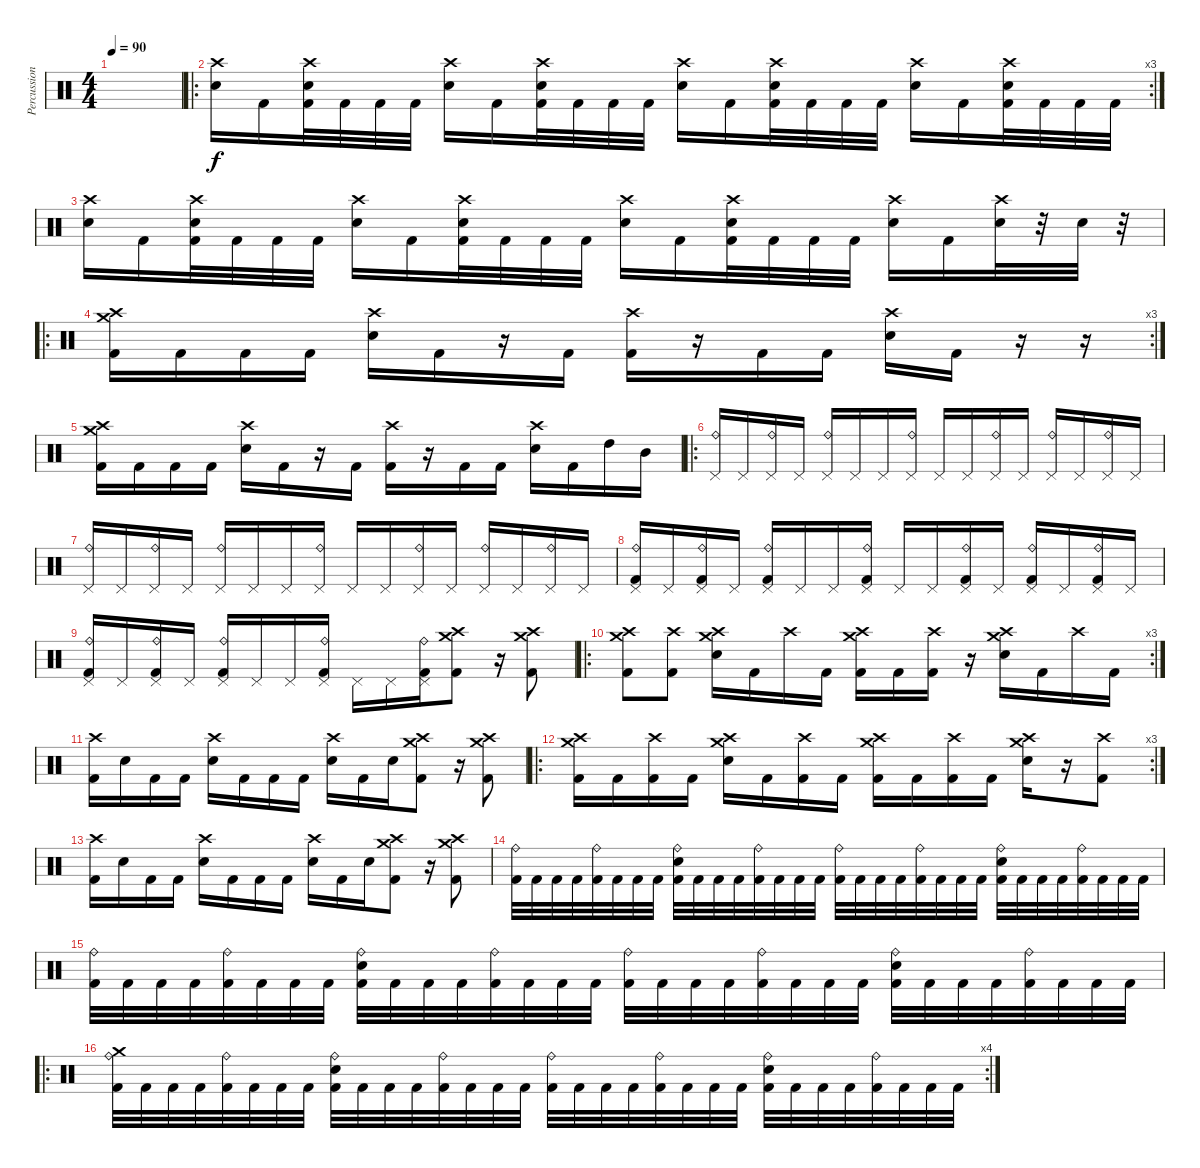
\track ("Percussion" "Percussion") {instrument percussion}
\staff {score}
\articulation defaults
\ts (4 4)
\tempo 90
\clef neutral
\ks c
|
\ro
\rc 3
("Crash high (hit)" "Electric Snare (hit)").16 "Kick (hit) 2".16 ("Crash high (hit)" "Electric Snare (hit)" "Kick (hit) 2").32 "Kick (hit) 2".32 "Kick (hit) 2".32 "Kick (hit) 2".32 ("Crash high (hit)" "Electric Snare (hit)").16 "Kick (hit) 2".16 ("Crash high (hit)" "Electric Snare (hit)" "Kick (hit) 2").32 "Kick (hit) 2".32 "Kick (hit) 2".32 "Kick (hit) 2".32 ("Crash high (hit)" "Electric Snare (hit)").16 "Kick (hit) 2".16 ("Crash high (hit)" "Electric Snare (hit)" "Kick (hit) 2").32 "Kick (hit) 2".32 "Kick (hit) 2".32 "Kick (hit) 2".32 ("Crash high (hit)" "Electric Snare (hit)").16 "Kick (hit) 2".16 ("Crash high (hit)" "Electric Snare (hit)" "Kick (hit) 2").32 "Kick (hit) 2".32 "Kick (hit) 2".32 "Kick (hit) 2".32 |
("Crash high (hit)" "Electric Snare (hit)").16 "Kick (hit) 2".16 ("Crash high (hit)" "Electric Snare (hit)" "Kick (hit) 2").32 "Kick (hit) 2".32 "Kick (hit) 2".32 "Kick (hit) 2".32 ("Crash high (hit)" "Electric Snare (hit)").16 "Kick (hit) 2".16 ("Crash high (hit)" "Electric Snare (hit)" "Kick (hit) 2").32 "Kick (hit) 2".32 "Kick (hit) 2".32 "Kick (hit) 2".32 ("Crash high (hit)" "Electric Snare (hit)").16 "Kick (hit) 2".16 ("Crash high (hit)" "Electric Snare (hit)" "Kick (hit) 2").32 "Kick (hit) 2".32 "Kick (hit) 2".32 "Kick (hit) 2".32 ("Crash high (hit)" "Electric Snare (hit)").16 "Kick (hit) 2".16 ("Crash high (hit)" "Electric Snare (hit)").32 r.32 "Electric Snare (hit)".32 r.32 |
\ro
\rc 3
("Crash medium (hit)" "Crash high (hit)" "Kick (hit) 2").16 "Kick (hit) 2".16 "Kick (hit) 2".16 "Kick (hit) 2".16 ("Crash high (hit)" "Electric Snare (hit)").16 "Kick (hit) 2".16 r.16 "Kick (hit) 2".16 ("Crash high (hit)" "Kick (hit) 2").16 r.16 "Kick (hit) 2".16 "Kick (hit) 2".16 ("Crash high (hit)" "Electric Snare (hit)").16 "Kick (hit) 2".16 r.16 r.16 |
("Crash medium (hit)" "Crash high (hit)" "Kick (hit) 2").16 "Kick (hit) 2".16 "Kick (hit) 2".16 "Kick (hit) 2".16 ("Crash high (hit)" "Electric Snare (hit)").16 "Kick (hit) 2".16 r.16 "Kick (hit) 2".16 ("Crash high (hit)" "Kick (hit) 2").16 r.16 "Kick (hit) 2".16 "Kick (hit) 2".16 ("Crash high (hit)" "Electric Snare (hit)").16 "Kick (hit) 2".16 "High Tom (hit)".16 "Mid Tom (hit)".16 |
\ro
("Ride (bell)" "Pedal Hi-Hat (hit)").16 "Pedal Hi-Hat (hit)".16 ("Ride (bell)" "Pedal Hi-Hat (hit)").16 "Pedal Hi-Hat (hit)".16 ("Ride (bell)" "Pedal Hi-Hat (hit)").16 "Pedal Hi-Hat (hit)".16 "Pedal Hi-Hat (hit)".16 ("Ride (bell)" "Pedal Hi-Hat (hit)").16 "Pedal Hi-Hat (hit)".16 "Pedal Hi-Hat (hit)".16 ("Ride (bell)" "Pedal Hi-Hat (hit)").16 "Pedal Hi-Hat (hit)".16 ("Ride (bell)" "Pedal Hi-Hat (hit)").16 "Pedal Hi-Hat (hit)".16 ("Ride (bell)" "Pedal Hi-Hat (hit)").16 "Pedal Hi-Hat (hit)".16 |
("Ride (bell)" "Pedal Hi-Hat (hit)").16 "Pedal Hi-Hat (hit)".16 ("Ride (bell)" "Pedal Hi-Hat (hit)").16 "Pedal Hi-Hat (hit)".16 ("Ride (bell)" "Pedal Hi-Hat (hit)").16 "Pedal Hi-Hat (hit)".16 "Pedal Hi-Hat (hit)".16 ("Ride (bell)" "Pedal Hi-Hat (hit)").16 "Pedal Hi-Hat (hit)".16 "Pedal Hi-Hat (hit)".16 ("Ride (bell)" "Pedal Hi-Hat (hit)").16 "Pedal Hi-Hat (hit)".16 ("Ride (bell)" "Pedal Hi-Hat (hit)").16 "Pedal Hi-Hat (hit)".16 ("Ride (bell)" "Pedal Hi-Hat (hit)").16 "Pedal Hi-Hat (hit)".16 |
("Ride (bell)" "Pedal Hi-Hat (hit)" "Kick (hit) 2").16 "Pedal Hi-Hat (hit)".16 ("Ride (bell)" "Pedal Hi-Hat (hit)" "Kick (hit) 2").16 "Pedal Hi-Hat (hit)".16 ("Ride (bell)" "Pedal Hi-Hat (hit)" "Kick (hit) 2").16 "Pedal Hi-Hat (hit)".16 "Pedal Hi-Hat (hit)".16 ("Ride (bell)" "Pedal Hi-Hat (hit)" "Kick (hit) 2").16 "Pedal Hi-Hat (hit)".16 "Pedal Hi-Hat (hit)".16 ("Ride (bell)" "Pedal Hi-Hat (hit)" "Kick (hit) 2").16 "Pedal Hi-Hat (hit)".16 ("Ride (bell)" "Pedal Hi-Hat (hit)" "Kick (hit) 2").16 "Pedal Hi-Hat (hit)".16 ("Ride (bell)" "Pedal Hi-Hat (hit)" "Kick (hit) 2").16 "Pedal Hi-Hat (hit)".16 |
("Ride (bell)" "Pedal Hi-Hat (hit)" "Kick (hit) 2").16 "Pedal Hi-Hat (hit)".16 ("Ride (bell)" "Pedal Hi-Hat (hit)" "Kick (hit) 2").16 "Pedal Hi-Hat (hit)".16 ("Ride (bell)" "Pedal Hi-Hat (hit)" "Kick (hit) 2").16 "Pedal Hi-Hat (hit)".16 "Pedal Hi-Hat (hit)".16 ("Ride (bell)" "Pedal Hi-Hat (hit)" "Kick (hit) 2").16 "Pedal Hi-Hat (hit)".16 "Pedal Hi-Hat (hit)".16 ("Ride (bell)" "Pedal Hi-Hat (hit)" "Kick (hit) 2").16 ("Crash high (hit)" "Crash medium (hit)" "Kick (hit) 2").8 r.16 ("Crash high (hit)" "Crash medium (hit)" "Kick (hit) 2").8 |
\ro
\rc 3
("Crash high (hit)" "Crash medium (hit)" "Kick (hit) 2").8 ("Crash high (hit)" "Kick (hit) 2").8 ("Crash high (hit)" "Crash medium (hit)" "Electric Snare (hit)").16 "Kick (hit) 2".16 "Crash high (hit)".16 "Kick (hit) 2".16 ("Crash high (hit)" "Crash medium (hit)" "Kick (hit) 2").16 "Kick (hit) 2".16 ("Crash high (hit)" "Kick (hit) 2").16 r.16 ("Crash high (hit)" "Crash medium (hit)" "Electric Snare (hit)").16 "Kick (hit) 2".16 "Crash high (hit)".16 "Kick (hit) 2".16 |
("Crash high (hit)" "Kick (hit) 2").16 "Electric Snare (hit)".16 "Kick (hit) 2".16 "Kick (hit) 2".16 ("Crash high (hit)" "Electric Snare (hit)").16 "Kick (hit) 2".16 "Kick (hit) 2".16 "Kick (hit) 2".16 ("Crash high (hit)" "Electric Snare (hit)").16 "Kick (hit) 2".16 "Electric Snare (hit)".16 ("Crash high (hit)" "Crash medium (hit)" "Kick (hit) 2").8 r.16 ("Crash high (hit)" "Crash medium (hit)" "Kick (hit) 2").8 |
\ro
\rc 3
("Crash high (hit)" "Crash medium (hit)" "Kick (hit) 2").16 "Kick (hit) 2".16 ("Crash high (hit)" "Kick (hit) 2").16 "Kick (hit) 2".16 ("Crash high (hit)" "Crash medium (hit)" "Electric Snare (hit)").16 "Kick (hit) 2".16 ("Crash high (hit)" "Kick (hit) 2").16 "Kick (hit) 2".16 ("Crash high (hit)" "Crash medium (hit)" "Kick (hit) 2").16 "Kick (hit) 2".16 ("Crash high (hit)" "Kick (hit) 2").16 "Kick (hit) 2".16 ("Crash high (hit)" "Crash medium (hit)" "Electric Snare (hit)").16 r.16 ("Crash high (hit)" "Kick (hit) 2").8 |
("Crash high (hit)" "Kick (hit) 2").16 "Electric Snare (hit)".16 "Kick (hit) 2".16 "Kick (hit) 2".16 ("Crash high (hit)" "Electric Snare (hit)").16 "Kick (hit) 2".16 "Kick (hit) 2".16 "Kick (hit) 2".16 ("Crash high (hit)" "Electric Snare (hit)").16 "Kick (hit) 2".16 "Electric Snare (hit)".16 ("Crash high (hit)" "Crash medium (hit)" "Kick (hit) 2").8 r.16 ("Crash high (hit)" "Crash medium (hit)" "Kick (hit) 2").8 |
("Ride (bell)" "Kick (hit) 2").32 "Kick (hit) 2".32 "Kick (hit) 2".32 "Kick (hit) 2".32 ("Ride (bell)" "Kick (hit) 2").32 "Kick (hit) 2".32 "Kick (hit) 2".32 "Kick (hit) 2".32 ("Ride (bell)" "Electric Snare (hit)" "Kick (hit) 2").32 "Kick (hit) 2".32 "Kick (hit) 2".32 "Kick (hit) 2".32 ("Ride (bell)" "Kick (hit) 2").32 "Kick (hit) 2".32 "Kick (hit) 2".32 "Kick (hit) 2".32 ("Ride (bell)" "Kick (hit) 2").32 "Kick (hit) 2".32 "Kick (hit) 2".32 "Kick (hit) 2".32 ("Ride (bell)" "Kick (hit) 2").32 "Kick (hit) 2".32 "Kick (hit) 2".32 "Kick (hit) 2".32 ("Ride (bell)" "Electric Snare (hit)" "Kick (hit) 2").32 "Kick (hit) 2".32 "Kick (hit) 2".32 "Kick (hit) 2".32 ("Ride (bell)" "Kick (hit) 2").32 "Kick (hit) 2".32 "Kick (hit) 2".32 "Kick (hit) 2".32 |
("Ride (bell)" "Kick (hit) 2").32 "Kick (hit) 2".32 "Kick (hit) 2".32 "Kick (hit) 2".32 ("Ride (bell)" "Kick (hit) 2").32 "Kick (hit) 2".32 "Kick (hit) 2".32 "Kick (hit) 2".32 ("Ride (bell)" "Electric Snare (hit)" "Kick (hit) 2").32 "Kick (hit) 2".32 "Kick (hit) 2".32 "Kick (hit) 2".32 ("Ride (bell)" "Kick (hit) 2").32 "Kick (hit) 2".32 "Kick (hit) 2".32 "Kick (hit) 2".32 ("Ride (bell)" "Kick (hit) 2").32 "Kick (hit) 2".32 "Kick (hit) 2".32 "Kick (hit) 2".32 ("Ride (bell)" "Kick (hit) 2").32 "Kick (hit) 2".32 "Kick (hit) 2".32 "Kick (hit) 2".32 ("Ride (bell)" "Electric Snare (hit)" "Kick (hit) 2").32 "Kick (hit) 2".32 "Kick (hit) 2".32 "Kick (hit) 2".32 ("Ride (bell)" "Kick (hit) 2").32 "Kick (hit) 2".32 "Kick (hit) 2".32 "Kick (hit) 2".32 |
\ro
\rc 4
("Ride (bell)" "Crash medium (hit)" "Kick (hit) 2").32 "Kick (hit) 2".32 "Kick (hit) 2".32 "Kick (hit) 2".32 ("Ride (bell)" "Kick (hit) 2").32 "Kick (hit) 2".32 "Kick (hit) 2".32 "Kick (hit) 2".32 ("Ride (bell)" "Electric Snare (hit)" "Kick (hit) 2").32 "Kick (hit) 2".32 "Kick (hit) 2".32 "Kick (hit) 2".32 ("Ride (bell)" "Kick (hit) 2").32 "Kick (hit) 2".32 "Kick (hit) 2".32 "Kick (hit) 2".32 ("Ride (bell)" "Kick (hit) 2").32 "Kick (hit) 2".32 "Kick (hit) 2".32 "Kick (hit) 2".32 ("Ride (bell)" "Kick (hit) 2").32 "Kick (hit) 2".32 "Kick (hit) 2".32 "Kick (hit) 2".32 ("Ride (bell)" "Electric Snare (hit)" "Kick (hit) 2").32 "Kick (hit) 2".32 "Kick (hit) 2".32 "Kick (hit) 2".32 ("Ride (bell)" "Kick (hit) 2").32 "Kick (hit) 2".32 "Kick (hit) 2".32 "Kick (hit) 2".32
